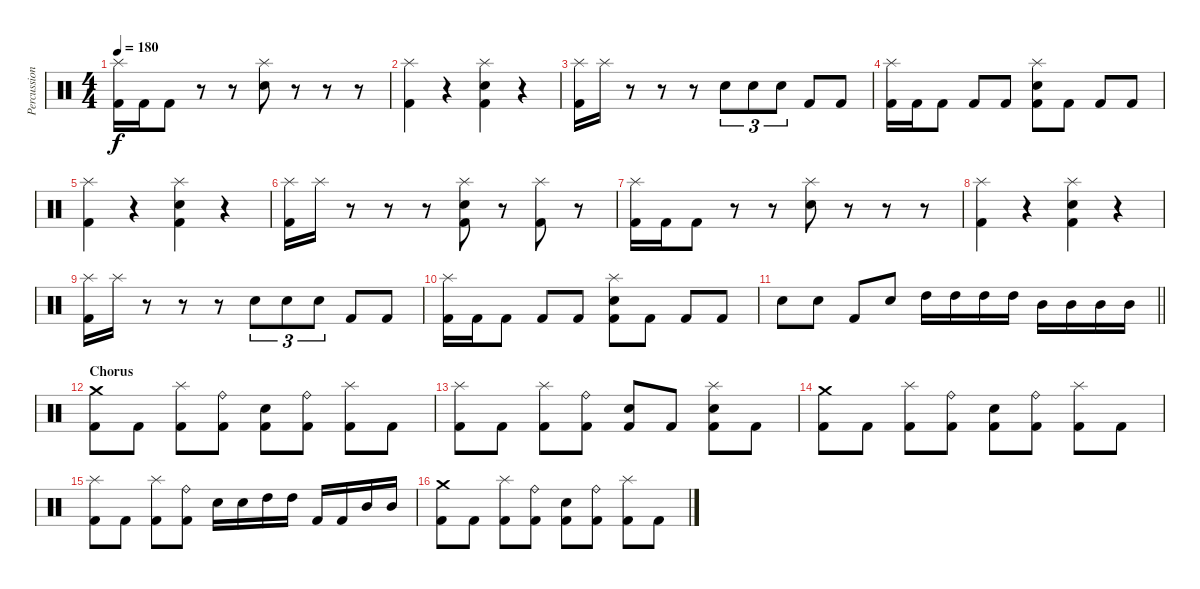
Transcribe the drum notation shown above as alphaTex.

\track ("Percussion" "Percussion") {instrument percussion}
\staff {score}
\articulation defaults
\ts (4 4)
\tempo 180
\clef neutral
\ks c
("Splash (hit)" "Kick (hit) 2").16{dy f} "Kick (hit) 2".16 "Kick (hit) 2".8 r.8 r.8 ("Splash (hit)" "Electric Snare (hit)").8 r.8 r.8 r.8 |
("Splash (hit)" "Kick (hit) 2").4 r.4 ("Splash (hit)" "Electric Snare (hit)" "Kick (hit) 2").4 r.4 |
("Splash (hit)" "Kick (hit) 2").16 "Splash (hit)".16 r.8 r.8 r.8 "Electric Snare (hit)".8{tu (3 2)} "Electric Snare (hit)".8{tu (3 2)} "Electric Snare (hit)".8{tu (3 2)} "Kick (hit) 2".8 "Kick (hit) 2".8 |
("Splash (hit)" "Kick (hit) 2").16 "Kick (hit) 2".16 "Kick (hit) 2".8 "Kick (hit) 2".8 "Kick (hit) 2".8 ("Splash (hit)" "Electric Snare (hit)" "Kick (hit) 2").8 "Kick (hit) 2".8 "Kick (hit) 2".8 "Kick (hit) 2".8 |
("Splash (hit)" "Kick (hit) 2").4 r.4 ("Splash (hit)" "Electric Snare (hit)" "Kick (hit) 2").4 r.4 |
("Splash (hit)" "Kick (hit) 2").16 "Splash (hit)".16 r.8 r.8 r.8 ("Splash (hit)" "Electric Snare (hit)" "Kick (hit) 2").8 r.8 ("Splash (hit)" "Kick (hit) 2").8 r.8 |
("Splash (hit)" "Kick (hit) 2").16 "Kick (hit) 2".16 "Kick (hit) 2".8 r.8 r.8 ("Splash (hit)" "Electric Snare (hit)").8 r.8 r.8 r.8 |
("Splash (hit)" "Kick (hit) 2").4 r.4 ("Splash (hit)" "Electric Snare (hit)" "Kick (hit) 2").4 r.4 |
("Splash (hit)" "Kick (hit) 2").16 "Splash (hit)".16 r.8 r.8 r.8 "Electric Snare (hit)".8{tu (3 2)} "Electric Snare (hit)".8{tu (3 2)} "Electric Snare (hit)".8{tu (3 2)} "Kick (hit) 2".8 "Kick (hit) 2".8 |
("Splash (hit)" "Kick (hit) 2").16 "Kick (hit) 2".16 "Kick (hit) 2".8 "Kick (hit) 2".8 "Kick (hit) 2".8 ("Splash (hit)" "Electric Snare (hit)" "Kick (hit) 2").8 "Kick (hit) 2".8 "Kick (hit) 2".8 "Kick (hit) 2".8 |
\barLineRight lightlight "Electric Snare (hit)".8 "Electric Snare (hit)".8 "Kick (hit) 2".8 "Electric Snare (hit)".8 "High Tom (hit)".16 "High Tom (hit)".16 "High Tom (hit)".16 "High Tom (hit)".16 "Mid Tom (hit)".16 "Mid Tom (hit)".16 "Mid Tom (hit)".16 "Mid Tom (hit)".16
|
\section ("" "Chorus")
("Crash medium (hit)" "Kick (hit) 2").8 "Kick (hit) 2".8 ("Splash (hit)" "Kick (hit) 2").8 ("Ride (bell)" "Kick (hit) 2").8 ("Electric Snare (hit)" "Kick (hit) 2").8 ("Ride (bell)" "Kick (hit) 2").8 ("Splash (hit)" "Kick (hit) 2").8 "Kick (hit) 2".8 |
("Splash (hit)" "Kick (hit) 2").8 "Kick (hit) 2".8 ("Splash (hit)" "Kick (hit) 2").8 ("Ride (bell)" "Kick (hit) 2").8 ("Electric Snare (hit)" "Kick (hit) 2").8 "Kick (hit) 2".8 ("Splash (hit)" "Electric Snare (hit)" "Kick (hit) 2").8 "Kick (hit) 2".8 |
("Crash medium (hit)" "Kick (hit) 2").8 "Kick (hit) 2".8 ("Splash (hit)" "Kick (hit) 2").8 ("Ride (bell)" "Kick (hit) 2").8 ("Electric Snare (hit)" "Kick (hit) 2").8 ("Ride (bell)" "Kick (hit) 2").8 ("Splash (hit)" "Kick (hit) 2").8 "Kick (hit) 2".8 |
("Splash (hit)" "Kick (hit) 2").8 "Kick (hit) 2".8 ("Splash (hit)" "Kick (hit) 2").8 ("Ride (bell)" "Kick (hit) 2").8 "Electric Snare (hit)".16 "Electric Snare (hit)".16 "High Tom (hit)".16 "High Tom (hit)".16 "Kick (hit) 2".16 "Kick (hit) 2".16 "Mid Tom (hit)".16 "Mid Tom (hit)".16 |
("Crash medium (hit)" "Kick (hit) 2").8 "Kick (hit) 2".8 ("Splash (hit)" "Kick (hit) 2").8 ("Ride (bell)" "Kick (hit) 2").8 ("Electric Snare (hit)" "Kick (hit) 2").8 ("Ride (bell)" "Kick (hit) 2").8 ("Splash (hit)" "Kick (hit) 2").8 "Kick (hit) 2".8
